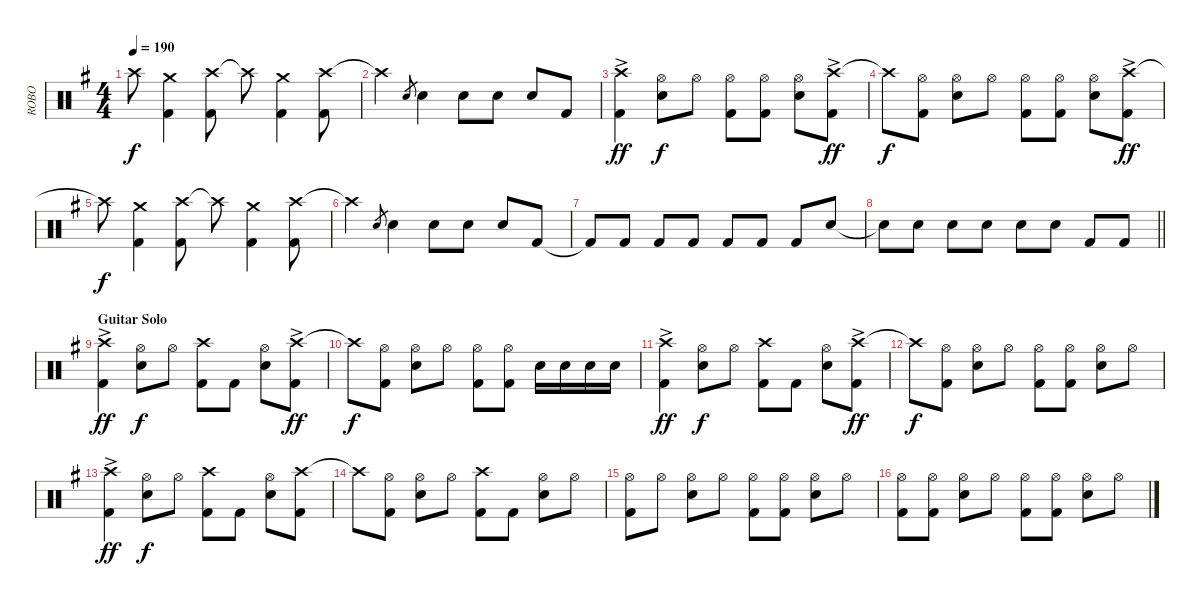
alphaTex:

\track ("ROBO" "ROBO") {instrument percussion}
\staff {score}
\articulation defaults
\ts (4 4)
\tempo 190
\clef neutral
\ks eminor "Crash high (hit)"{t}.8{dy f}
("Crash medium (hit)" "Kick (hit) 2").4 ("Crash high (hit)" "Kick (hit) 2").8 "Crash high (hit)"{t}.8 ("Crash medium (hit)" "Kick (hit) 2").4 ("Crash high (hit)" "Kick (hit) 2").8 |
"Crash high (hit)"{t}.4 "Snare (hit) 2".8{gr} "Snare (hit) 2".4 "Snare (hit) 2".8 "Snare (hit) 2".8 "Snare (hit) 2".8 "Kick (hit) 2".8 |
("Crash high (hit)"{ac} "Kick (hit) 2").4{dy ff} ("Hi-Hat (open)" "Snare (hit) 2").8{dy f} "Hi-Hat (open)".8 ("Hi-Hat (open)" "Kick (hit) 2").8 ("Hi-Hat (open)" "Kick (hit) 2").8 ("Hi-Hat (open)" "Snare (hit) 2").8 ("Crash high (hit)"{ac} "Kick (hit) 2").8{dy ff} |
"Crash high (hit)"{t}.8{dy f} ("Hi-Hat (open)" "Kick (hit) 2").8 ("Hi-Hat (open)" "Snare (hit) 2").8 "Hi-Hat (open)".8 ("Hi-Hat (open)" "Kick (hit) 2").8 ("Hi-Hat (open)" "Kick (hit) 2").8 ("Hi-Hat (open)" "Snare (hit) 2").8 ("Crash high (hit)"{ac} "Kick (hit) 2").8{dy ff} |
"Crash high (hit)"{t}.8{dy f} ("Crash medium (hit)" "Kick (hit) 2").4 ("Crash high (hit)" "Kick (hit) 2").8 "Crash high (hit)"{t}.8 ("Crash medium (hit)" "Kick (hit) 2").4 ("Crash high (hit)" "Kick (hit) 2").8 |
"Crash high (hit)"{t}.4 "Snare (hit) 2".8{gr} "Snare (hit) 2".4 "Snare (hit) 2".8 "Snare (hit) 2".8 "Snare (hit) 2".8 "Kick (hit) 2".8 |
"Kick (hit) 2"{t}.8 "Kick (hit) 2".8 "Kick (hit) 2".8 "Kick (hit) 2".8 "Kick (hit) 2".8 "Kick (hit) 2".8 "Kick (hit) 2".8 "Snare (hit) 2".8 |
\barLineRight lightlight "Snare (hit) 2"{t}.8 "Snare (hit) 2".8 "Snare (hit) 2".8 "Snare (hit) 2".8 "Snare (hit) 2".8 "Snare (hit) 2".8 "Kick (hit) 2".8 "Kick (hit) 2".8
|
\section ("" "Guitar Solo")
("Crash high (hit)"{ac} "Kick (hit) 2").4{dy ff} ("Hi-Hat (open)" "Snare (hit) 2").8{dy f} "Hi-Hat (open)".8 ("Crash high (hit)" "Kick (hit) 2").8 "Kick (hit) 2".8 ("Hi-Hat (open)" "Snare (hit) 2").8 ("Crash high (hit)"{ac} "Kick (hit) 2").8{dy ff} |
"Crash high (hit)"{t}.8{dy f} ("Hi-Hat (open)" "Kick (hit) 2").8 ("Hi-Hat (open)" "Snare (hit) 2").8 "Hi-Hat (open)".8 ("Hi-Hat (open)" "Kick (hit) 2").8 ("Hi-Hat (open)" "Kick (hit) 2").8 "Snare (hit) 2".16 "Snare (hit) 2".16 "Snare (hit) 2".16 "Snare (hit) 2".16 |
("Crash high (hit)"{ac} "Kick (hit) 2").4{dy ff} ("Hi-Hat (open)" "Snare (hit) 2").8{dy f} "Hi-Hat (open)".8 ("Crash high (hit)" "Kick (hit) 2").8 "Kick (hit) 2".8 ("Hi-Hat (open)" "Snare (hit) 2").8 ("Crash high (hit)"{ac} "Kick (hit) 2").8{dy ff} |
"Crash high (hit)"{t}.8{dy f} ("Hi-Hat (open)" "Kick (hit) 2").8 ("Hi-Hat (open)" "Snare (hit) 2").8 "Hi-Hat (open)".8 ("Hi-Hat (open)" "Kick (hit) 2").8 ("Hi-Hat (open)" "Kick (hit) 2").8 ("Hi-Hat (open)" "Snare (hit) 2").8 "Hi-Hat (open)".8 |
("Crash high (hit)"{ac} "Kick (hit) 2").4{dy ff} ("Hi-Hat (open)" "Snare (hit) 2").8{dy f} "Hi-Hat (open)".8 ("Crash high (hit)" "Kick (hit) 2").8 "Kick (hit) 2".8 ("Hi-Hat (open)" "Snare (hit) 2").8 ("Crash high (hit)" "Kick (hit) 2").8 |
"Crash high (hit)"{t}.8 ("Hi-Hat (open)" "Kick (hit) 2").8 ("Hi-Hat (open)" "Snare (hit) 2").8 "Hi-Hat (open)".8 ("Crash high (hit)" "Kick (hit) 2").8 "Kick (hit) 2".8 ("Hi-Hat (open)" "Snare (hit) 2").8 "Hi-Hat (open)".8 |
("Hi-Hat (open)" "Kick (hit) 2").8 "Hi-Hat (open)".8 ("Hi-Hat (open)" "Snare (hit) 2").8 "Hi-Hat (open)".8 ("Hi-Hat (open)" "Kick (hit) 2").8 ("Hi-Hat (open)" "Kick (hit) 2").8 ("Hi-Hat (open)" "Snare (hit) 2").8 "Hi-Hat (open)".8 |
("Hi-Hat (open)" "Kick (hit) 2").8 ("Hi-Hat (open)" "Kick (hit) 2").8 ("Hi-Hat (open)" "Snare (hit) 2").8 "Hi-Hat (open)".8 ("Hi-Hat (open)" "Kick (hit) 2").8 ("Hi-Hat (open)" "Kick (hit) 2").8 ("Hi-Hat (open)" "Snare (hit) 2").8 "Hi-Hat (open)".8
